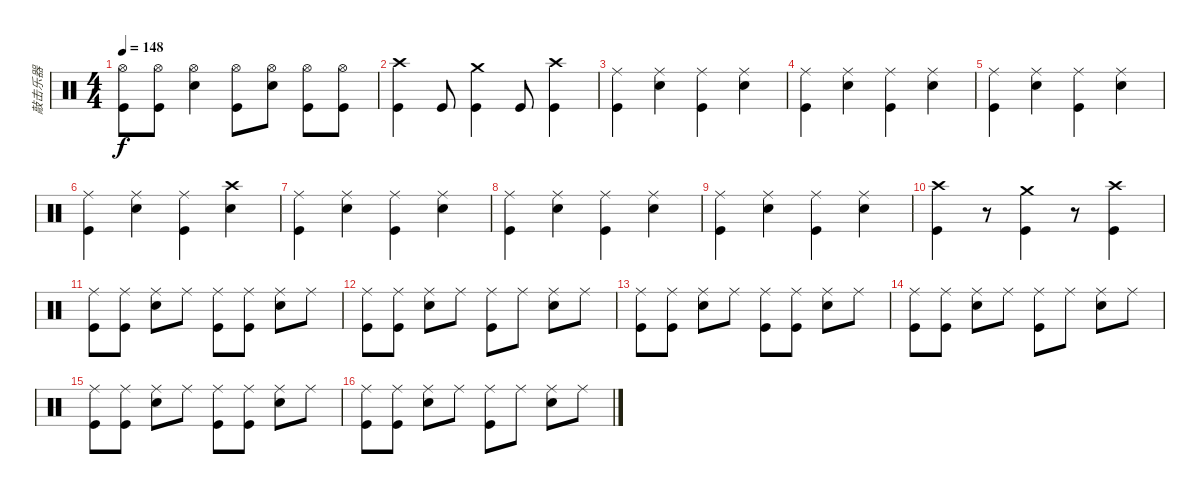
\track ("敲击乐器" "敲击乐器") {instrument percussion}
\staff {score}
\articulation defaults
\ts (4 4)
\tempo 148
\clef neutral
\ks c
("Hi-Hat (open)" "Kick (hit)").8{dy f} ("Hi-Hat (open)" "Kick (hit)").8 ("Hi-Hat (open)" "Snare (hit) 2").4 ("Hi-Hat (open)" "Kick (hit)").8 ("Hi-Hat (open)" "Snare (hit) 2").8 ("Hi-Hat (open)" "Kick (hit)").8 ("Hi-Hat (open)" "Kick (hit)").8 |
("Crash high (hit)" "Kick (hit)").4 "Kick (hit)".8 ("Crash medium (hit)" "Kick (hit)").4 "Kick (hit)".8 ("Crash high (hit)" "Kick (hit)").4 |
("Ride (middle)" "Kick (hit)").4 ("Ride (middle)" "Snare (hit) 2").4 ("Ride (middle)" "Kick (hit)").4 ("Snare (hit) 2" "Ride (middle)").4 |
("Ride (middle)" "Kick (hit)").4 ("Ride (middle)" "Snare (hit) 2").4 ("Ride (middle)" "Kick (hit)").4 ("Snare (hit) 2" "Ride (middle)").4 |
("Ride (middle)" "Kick (hit)").4 ("Ride (middle)" "Snare (hit) 2").4 ("Ride (middle)" "Kick (hit)").4 ("Snare (hit) 2" "Ride (middle)").4 |
("Ride (middle)" "Kick (hit)").4 ("Ride (middle)" "Snare (hit) 2").4 ("Ride (middle)" "Kick (hit)").4 ("Snare (hit) 2" "Crash high (hit)").4 |
("Ride (middle)" "Kick (hit)").4 ("Ride (middle)" "Snare (hit) 2").4 ("Ride (middle)" "Kick (hit)").4 ("Snare (hit) 2" "Ride (middle)").4 |
("Ride (middle)" "Kick (hit)").4 ("Ride (middle)" "Snare (hit) 2").4 ("Ride (middle)" "Kick (hit)").4 ("Snare (hit) 2" "Ride (middle)").4 |
("Ride (middle)" "Kick (hit)").4 ("Ride (middle)" "Snare (hit) 2").4 ("Ride (middle)" "Kick (hit)").4 ("Snare (hit) 2" "Ride (middle)").4 |
("Crash high (hit)" "Kick (hit)").4 r.8 ("Crash medium (hit)" "Kick (hit)").4 r.8 ("Crash high (hit)" "Kick (hit)").4 |
("Ride (middle)" "Kick (hit)").8 ("Ride (middle)" "Kick (hit)").8 ("Ride (middle)" "Snare (hit) 2").8 "Ride (middle)".8 ("Ride (middle)" "Kick (hit)").8 ("Ride (middle)" "Kick (hit)").8 ("Ride (middle)" "Snare (hit) 2").8 "Ride (middle)".8 |
("Ride (middle)" "Kick (hit)").8 ("Ride (middle)" "Kick (hit)").8 ("Ride (middle)" "Snare (hit) 2").8 "Ride (middle)".8 ("Ride (middle)" "Kick (hit)").8 "Ride (middle)".8 ("Ride (middle)" "Snare (hit) 2").8 "Ride (middle)".8 |
("Ride (middle)" "Kick (hit)").8 ("Ride (middle)" "Kick (hit)").8 ("Ride (middle)" "Snare (hit) 2").8 "Ride (middle)".8 ("Ride (middle)" "Kick (hit)").8 ("Ride (middle)" "Kick (hit)").8 ("Ride (middle)" "Snare (hit) 2").8 "Ride (middle)".8 |
("Ride (middle)" "Kick (hit)").8 ("Ride (middle)" "Kick (hit)").8 ("Ride (middle)" "Snare (hit) 2").8 "Ride (middle)".8 ("Ride (middle)" "Kick (hit)").8 "Ride (middle)".8 ("Ride (middle)" "Snare (hit) 2").8 "Ride (middle)".8 |
("Ride (middle)" "Kick (hit)").8 ("Ride (middle)" "Kick (hit)").8 ("Ride (middle)" "Snare (hit) 2").8 "Ride (middle)".8 ("Ride (middle)" "Kick (hit)").8 ("Ride (middle)" "Kick (hit)").8 ("Ride (middle)" "Snare (hit) 2").8 "Ride (middle)".8 |
("Ride (middle)" "Kick (hit)").8 ("Ride (middle)" "Kick (hit)").8 ("Ride (middle)" "Snare (hit) 2").8 "Ride (middle)".8 ("Ride (middle)" "Kick (hit)").8 "Ride (middle)".8 ("Ride (middle)" "Snare (hit) 2").8 "Ride (middle)".8
